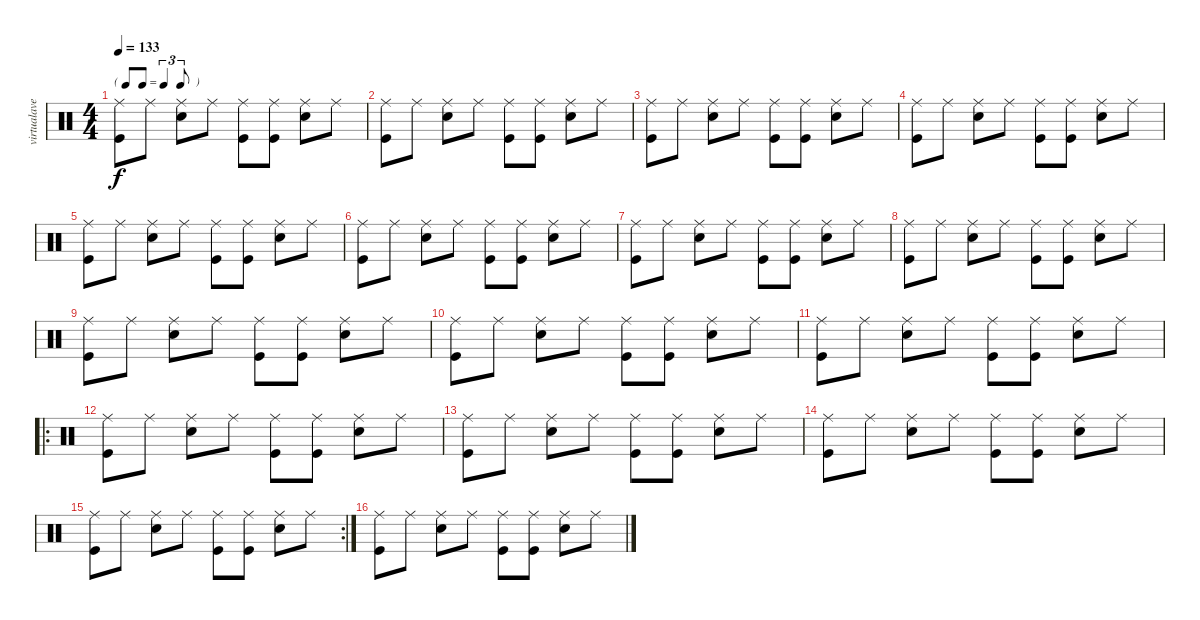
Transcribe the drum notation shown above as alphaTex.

\track ("virtualave.net" "virtualave") {instrument percussion}
\staff {score}
\articulation defaults
\ts (4 4)
\tf triplet8th
\tempo 133
\clef neutral
\ks c
("Ride (middle)" "Kick (hit)").8{dy f} "Ride (middle)".8 ("Ride (middle)" "Snare (hit) 2").8 "Ride (middle)".8 ("Ride (middle)" "Kick (hit)").8 ("Ride (middle)" "Kick (hit)").8 ("Ride (middle)" "Snare (hit) 2").8 "Ride (middle)".8 |
("Ride (middle)" "Kick (hit)").8 "Ride (middle)".8 ("Ride (middle)" "Snare (hit) 2").8 "Ride (middle)".8 ("Ride (middle)" "Kick (hit)").8 ("Ride (middle)" "Kick (hit)").8 ("Ride (middle)" "Snare (hit) 2").8 "Ride (middle)".8 |
("Ride (middle)" "Kick (hit)").8 "Ride (middle)".8 ("Ride (middle)" "Snare (hit) 2").8 "Ride (middle)".8 ("Ride (middle)" "Kick (hit)").8 ("Ride (middle)" "Kick (hit)").8 ("Ride (middle)" "Snare (hit) 2").8 "Ride (middle)".8 |
("Ride (middle)" "Kick (hit)").8 "Ride (middle)".8 ("Ride (middle)" "Snare (hit) 2").8 "Ride (middle)".8 ("Ride (middle)" "Kick (hit)").8 ("Ride (middle)" "Kick (hit)").8 ("Ride (middle)" "Snare (hit) 2").8 "Ride (middle)".8 |
("Ride (middle)" "Kick (hit)").8 "Ride (middle)".8 ("Ride (middle)" "Snare (hit) 2").8 "Ride (middle)".8 ("Ride (middle)" "Kick (hit)").8 ("Ride (middle)" "Kick (hit)").8 ("Ride (middle)" "Snare (hit) 2").8 "Ride (middle)".8 |
("Ride (middle)" "Kick (hit)").8 "Ride (middle)".8 ("Ride (middle)" "Snare (hit) 2").8 "Ride (middle)".8 ("Ride (middle)" "Kick (hit)").8 ("Ride (middle)" "Kick (hit)").8 ("Ride (middle)" "Snare (hit) 2").8 "Ride (middle)".8 |
("Ride (middle)" "Kick (hit)").8 "Ride (middle)".8 ("Ride (middle)" "Snare (hit) 2").8 "Ride (middle)".8 ("Ride (middle)" "Kick (hit)").8 ("Ride (middle)" "Kick (hit)").8 ("Ride (middle)" "Snare (hit) 2").8 "Ride (middle)".8 |
("Ride (middle)" "Kick (hit)").8 "Ride (middle)".8 ("Ride (middle)" "Snare (hit) 2").8 "Ride (middle)".8 ("Ride (middle)" "Kick (hit)").8 ("Ride (middle)" "Kick (hit)").8 ("Ride (middle)" "Snare (hit) 2").8 "Ride (middle)".8 |
("Ride (middle)" "Kick (hit)").8 "Ride (middle)".8 ("Ride (middle)" "Snare (hit) 2").8 "Ride (middle)".8 ("Ride (middle)" "Kick (hit)").8 ("Ride (middle)" "Kick (hit)").8 ("Ride (middle)" "Snare (hit) 2").8 "Ride (middle)".8 |
("Ride (middle)" "Kick (hit)").8 "Ride (middle)".8 ("Ride (middle)" "Snare (hit) 2").8 "Ride (middle)".8 ("Ride (middle)" "Kick (hit)").8 ("Ride (middle)" "Kick (hit)").8 ("Ride (middle)" "Snare (hit) 2").8 "Ride (middle)".8 |
("Ride (middle)" "Kick (hit)").8 "Ride (middle)".8 ("Ride (middle)" "Snare (hit) 2").8 "Ride (middle)".8 ("Ride (middle)" "Kick (hit)").8 ("Ride (middle)" "Kick (hit)").8 ("Ride (middle)" "Snare (hit) 2").8 "Ride (middle)".8 |
\ro
("Ride (middle)" "Kick (hit)").8 "Ride (middle)".8 ("Ride (middle)" "Snare (hit) 2").8 "Ride (middle)".8 ("Ride (middle)" "Kick (hit)").8 ("Ride (middle)" "Kick (hit)").8 ("Ride (middle)" "Snare (hit) 2").8 "Ride (middle)".8 |
("Ride (middle)" "Kick (hit)").8 "Ride (middle)".8 ("Ride (middle)" "Snare (hit) 2").8 "Ride (middle)".8 ("Ride (middle)" "Kick (hit)").8 ("Ride (middle)" "Kick (hit)").8 ("Ride (middle)" "Snare (hit) 2").8 "Ride (middle)".8 |
("Ride (middle)" "Kick (hit)").8 "Ride (middle)".8 ("Ride (middle)" "Snare (hit) 2").8 "Ride (middle)".8 ("Ride (middle)" "Kick (hit)").8 ("Ride (middle)" "Kick (hit)").8 ("Ride (middle)" "Snare (hit) 2").8 "Ride (middle)".8 |
\rc 2
("Ride (middle)" "Kick (hit)").8 "Ride (middle)".8 ("Ride (middle)" "Snare (hit) 2").8 "Ride (middle)".8 ("Ride (middle)" "Kick (hit)").8 ("Ride (middle)" "Kick (hit)").8 ("Ride (middle)" "Snare (hit) 2").8 "Ride (middle)".8 |
("Ride (middle)" "Kick (hit)").8{volume 14} "Ride (middle)".8 ("Ride (middle)" "Snare (hit) 2").8 "Ride (middle)".8 ("Ride (middle)" "Kick (hit)").8 ("Ride (middle)" "Kick (hit)").8 ("Ride (middle)" "Snare (hit) 2").8 "Ride (middle)".8
